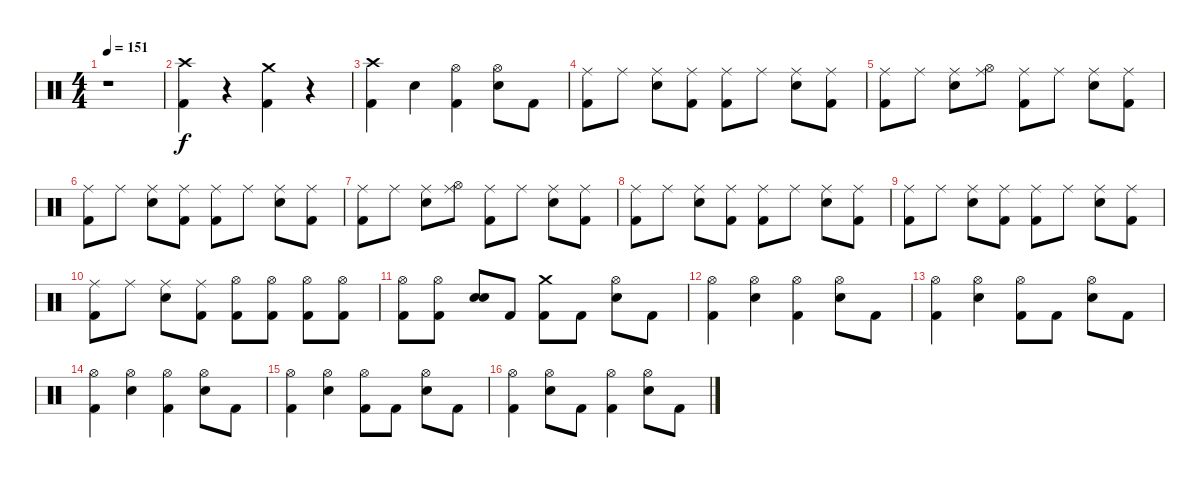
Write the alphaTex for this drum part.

\track "" {instrument percussion}
\staff {score}
\articulation defaults
\ts (4 4)
\tempo 151
\clef neutral
\ks c
r.1{dy f} |
("Crash high (hit)" "Kick (hit) 2").4 r.4 ("Crash medium (hit)" "Kick (hit) 2").4 r.4 |
("Crash high (hit)" "Kick (hit) 2").4 "Snare (hit) 2".4 ("Kick (hit) 2" "Hi-Hat (open)").4 ("Snare (hit) 2" "Hi-Hat (open)").8 "Kick (hit) 2".8 |
("Kick (hit) 2" "Ride (middle)").8 "Ride (middle)".8 ("Ride (middle)" "Snare (hit) 2").8 ("Ride (middle)" "Kick (hit) 2").8 ("Ride (middle)" "Kick (hit) 2").8 "Ride (middle)".8 ("Ride (middle)" "Snare (hit) 2").8 ("Ride (middle)" "Kick (hit) 2").8 |
("Ride (middle)" "Kick (hit) 2").8 "Ride (middle)".8 ("Ride (middle)" "Snare (hit) 2").8 ("Ride (middle)" "Hi-Hat (open)").8 ("Ride (middle)" "Kick (hit) 2").8 "Ride (middle)".8 ("Ride (middle)" "Snare (hit) 2").8 ("Ride (middle)" "Kick (hit) 2").8 |
("Kick (hit) 2" "Ride (middle)").8 "Ride (middle)".8 ("Ride (middle)" "Snare (hit) 2").8 ("Ride (middle)" "Kick (hit) 2").8 ("Ride (middle)" "Kick (hit) 2").8 "Ride (middle)".8 ("Ride (middle)" "Snare (hit) 2").8 ("Ride (middle)" "Kick (hit) 2").8 |
("Ride (middle)" "Kick (hit) 2").8 "Ride (middle)".8 ("Ride (middle)" "Snare (hit) 2").8 ("Ride (middle)" "Hi-Hat (open)").8 ("Ride (middle)" "Kick (hit) 2").8 "Ride (middle)".8 ("Ride (middle)" "Snare (hit) 2").8 ("Ride (middle)" "Kick (hit) 2").8 |
("Kick (hit) 2" "Ride (middle)").8 "Ride (middle)".8 ("Ride (middle)" "Snare (hit) 2").8 ("Ride (middle)" "Kick (hit) 2").8 ("Ride (middle)" "Kick (hit) 2").8 "Ride (middle)".8 ("Ride (middle)" "Snare (hit) 2").8 ("Ride (middle)" "Kick (hit) 2").8 |
("Ride (middle)" "Kick (hit) 2").8 "Ride (middle)".8 ("Ride (middle)" "Snare (hit) 2").8 ("Ride (middle)" "Kick (hit) 2").8 ("Ride (middle)" "Kick (hit) 2").8 "Ride (middle)".8 ("Ride (middle)" "Snare (hit) 2").8 ("Ride (middle)" "Kick (hit) 2").8 |
("Ride (middle)" "Kick (hit) 2").8 "Ride (middle)".8 ("Ride (middle)" "Snare (hit) 2").8 ("Ride (middle)" "Kick (hit) 2").8 ("Hi-Hat (open)" "Kick (hit) 2").8 ("Hi-Hat (open)" "Kick (hit) 2").8 ("Hi-Hat (open)" "Kick (hit) 2").8 ("Hi-Hat (open)" "Kick (hit) 2").8 |
("Hi-Hat (open)" "Kick (hit) 2").8 ("Hi-Hat (open)" "Kick (hit) 2").8 ("Snare (hit) 2" "Snare (hit) 2").8 "Kick (hit) 2".8 ("Kick (hit) 2" "Crash medium (hit)").8 "Kick (hit) 2".8 ("Snare (hit) 2" "Hi-Hat (open)").8 "Kick (hit) 2".8 |
("Kick (hit) 2" "Hi-Hat (open)").4 ("Snare (hit) 2" "Hi-Hat (open)").4 ("Kick (hit) 2" "Hi-Hat (open)").4 ("Snare (hit) 2" "Hi-Hat (open)").8 "Kick (hit) 2".8 |
("Kick (hit) 2" "Hi-Hat (open)").4 ("Snare (hit) 2" "Hi-Hat (open)").4 ("Kick (hit) 2" "Hi-Hat (open)").8 "Kick (hit) 2".8 ("Snare (hit) 2" "Hi-Hat (open)").8 "Kick (hit) 2".8 |
("Kick (hit) 2" "Hi-Hat (open)").4 ("Snare (hit) 2" "Hi-Hat (open)").4 ("Kick (hit) 2" "Hi-Hat (open)").4 ("Snare (hit) 2" "Hi-Hat (open)").8 "Kick (hit) 2".8 |
("Kick (hit) 2" "Hi-Hat (open)").4 ("Snare (hit) 2" "Hi-Hat (open)").4 ("Kick (hit) 2" "Hi-Hat (open)").8 "Kick (hit) 2".8 ("Snare (hit) 2" "Hi-Hat (open)").8 "Kick (hit) 2".8 |
("Kick (hit) 2" "Hi-Hat (open)").4 ("Snare (hit) 2" "Hi-Hat (open)").8 "Kick (hit) 2".8 ("Kick (hit) 2" "Hi-Hat (open)").4 ("Snare (hit) 2" "Hi-Hat (open)").8 "Kick (hit) 2".8
